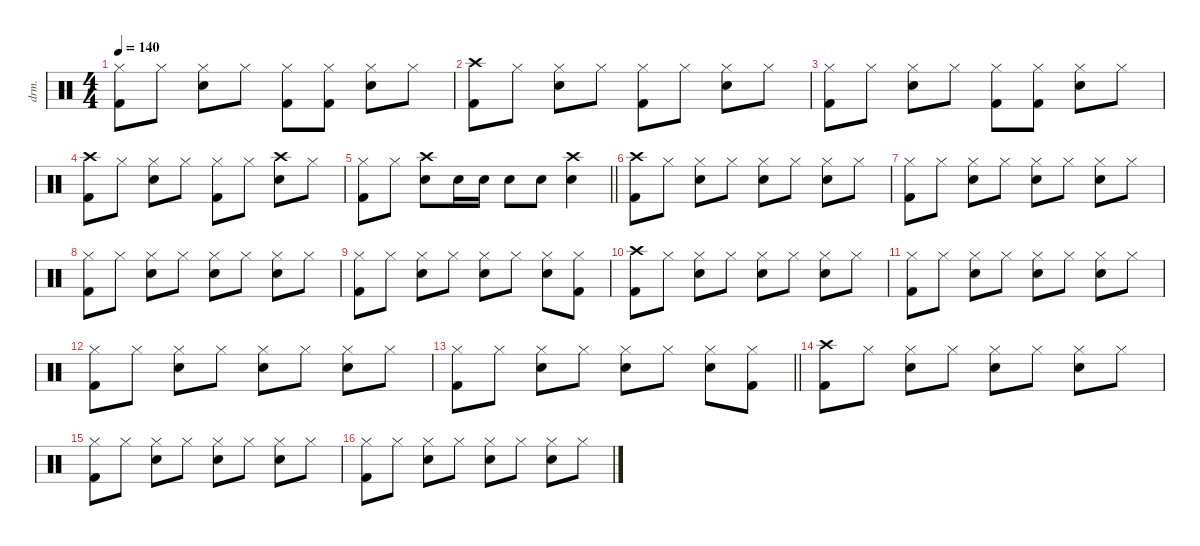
\defaultSystemsLayout 4
\hideDynamics
\bracketExtendMode nobrackets
\otherSystemsTrackNameOrientation horizontal
\track ("Drums" "drm.") {defaultSystemsLayout 4 instrument percussion}
\staff {score}
\articulation defaults
\ts (4 4)
\tempo 140
\clef neutral
\ks c
("Hi-Hat (closed)" "Kick (hit) 2").8{dy f beam Down} "Hi-Hat (closed)".8{beam Down} ("Hi-Hat (closed)" "Snare (hit) 2").8{beam Down} "Hi-Hat (closed)".8{beam Down} ("Hi-Hat (closed)" "Kick (hit) 2").8{beam Down} ("Hi-Hat (closed)" "Kick (hit) 2").8{beam Down} ("Hi-Hat (closed)" "Snare (hit) 2").8{beam Down} "Hi-Hat (closed)".8{beam Down} |
("Crash high (hit)" "Kick (hit) 2").8{beam Down} "Hi-Hat (closed)".8{beam Down} ("Hi-Hat (closed)" "Snare (hit) 2").8{beam Down} "Hi-Hat (closed)".8{beam Down} ("Hi-Hat (closed)" "Kick (hit) 2").8{beam Down} "Hi-Hat (closed)".8{beam Down} ("Hi-Hat (closed)" "Snare (hit) 2").8{beam Down} "Hi-Hat (closed)".8{beam Down} |
("Hi-Hat (closed)" "Kick (hit) 2").8{beam Down} "Hi-Hat (closed)".8{beam Down} ("Hi-Hat (closed)" "Snare (hit) 2").8{beam Down} "Hi-Hat (closed)".8{beam Down} ("Hi-Hat (closed)" "Kick (hit) 2").8{beam Down} ("Hi-Hat (closed)" "Kick (hit) 2").8{beam Down} ("Hi-Hat (closed)" "Snare (hit) 2").8{beam Down} "Hi-Hat (closed)".8{beam Down} |
("Crash high (hit)" "Kick (hit) 2").8{beam Down} "Hi-Hat (closed)".8{beam Down} ("Hi-Hat (closed)" "Snare (hit) 2").8{beam Down} "Hi-Hat (closed)".8{beam Down} ("Hi-Hat (closed)" "Kick (hit) 2").8{beam Down} "Hi-Hat (closed)".8{beam Down} ("Crash high (hit)" "Snare (hit) 2").8{beam Down} "Hi-Hat (closed)".8{beam Down} |
\barLineRight lightlight
("Hi-Hat (closed)" "Kick (hit) 2").8{beam Down} "Hi-Hat (closed)".8{beam Down} ("Crash high (hit)" "Snare (hit) 2").8{beam Down} "Snare (hit) 2".16{beam Down} "Snare (hit) 2".16{beam Down} "Snare (hit) 2".8{beam Down} "Snare (hit) 2".8{beam Down} ("Crash high (hit)" "Snare (hit) 2").4{beam Down} |
("Crash high (hit)" "Kick (hit) 2").8{beam Down} "Hi-Hat (closed)".8{beam Down} ("Hi-Hat (closed)" "Snare (hit) 2").8{beam Down} "Hi-Hat (closed)".8{beam Down} ("Hi-Hat (closed)" "Snare (hit) 2").8{beam Down} "Hi-Hat (closed)".8{beam Down} ("Hi-Hat (closed)" "Snare (hit) 2").8{beam Down} "Hi-Hat (closed)".8{beam Down} |
("Hi-Hat (closed)" "Kick (hit) 2").8{beam Down} "Hi-Hat (closed)".8{beam Down} ("Hi-Hat (closed)" "Snare (hit) 2").8{beam Down} "Hi-Hat (closed)".8{beam Down} ("Hi-Hat (closed)" "Snare (hit) 2").8{beam Down} "Hi-Hat (closed)".8{beam Down} ("Hi-Hat (closed)" "Snare (hit) 2").8{beam Down} "Hi-Hat (closed)".8{beam Down} |
("Hi-Hat (closed)" "Kick (hit) 2").8{beam Down} "Hi-Hat (closed)".8{beam Down} ("Hi-Hat (closed)" "Snare (hit) 2").8{beam Down} "Hi-Hat (closed)".8{beam Down} ("Hi-Hat (closed)" "Snare (hit) 2").8{beam Down} "Hi-Hat (closed)".8{beam Down} ("Hi-Hat (closed)" "Snare (hit) 2").8{beam Down} "Hi-Hat (closed)".8{beam Down} |
("Hi-Hat (closed)" "Kick (hit) 2").8{beam Down} "Hi-Hat (closed)".8{beam Down} ("Hi-Hat (closed)" "Snare (hit) 2").8{beam Down} "Hi-Hat (closed)".8{beam Down} ("Hi-Hat (closed)" "Snare (hit) 2").8{beam Down} "Hi-Hat (closed)".8{beam Down} ("Hi-Hat (closed)" "Snare (hit) 2").8{beam Down} ("Hi-Hat (closed)" "Kick (hit) 2").8{beam Down} |
("Crash high (hit)" "Kick (hit) 2").8{beam Down} "Hi-Hat (closed)".8{beam Down} ("Hi-Hat (closed)" "Snare (hit) 2").8{beam Down} "Hi-Hat (closed)".8{beam Down} ("Hi-Hat (closed)" "Snare (hit) 2").8{beam Down} "Hi-Hat (closed)".8{beam Down} ("Hi-Hat (closed)" "Snare (hit) 2").8{beam Down} "Hi-Hat (closed)".8{beam Down} |
("Hi-Hat (closed)" "Kick (hit) 2").8{beam Down} "Hi-Hat (closed)".8{beam Down} ("Hi-Hat (closed)" "Snare (hit) 2").8{beam Down} "Hi-Hat (closed)".8{beam Down} ("Hi-Hat (closed)" "Snare (hit) 2").8{beam Down} "Hi-Hat (closed)".8{beam Down} ("Hi-Hat (closed)" "Snare (hit) 2").8{beam Down} "Hi-Hat (closed)".8{beam Down} |
("Hi-Hat (closed)" "Kick (hit) 2").8{beam Down} "Hi-Hat (closed)".8{beam Down} ("Hi-Hat (closed)" "Snare (hit) 2").8{beam Down} "Hi-Hat (closed)".8{beam Down} ("Hi-Hat (closed)" "Snare (hit) 2").8{beam Down} "Hi-Hat (closed)".8{beam Down} ("Hi-Hat (closed)" "Snare (hit) 2").8{beam Down} "Hi-Hat (closed)".8{beam Down} |
\barLineRight lightlight
("Hi-Hat (closed)" "Kick (hit) 2").8{beam Down} "Hi-Hat (closed)".8{beam Down} ("Hi-Hat (closed)" "Snare (hit) 2").8{beam Down} "Hi-Hat (closed)".8{beam Down} ("Hi-Hat (closed)" "Snare (hit) 2").8{beam Down} "Hi-Hat (closed)".8{beam Down} ("Hi-Hat (closed)" "Snare (hit) 2").8{beam Down} ("Hi-Hat (closed)" "Kick (hit) 2").8{beam Down} |
("Crash high (hit)" "Kick (hit) 2").8{beam Down} "Hi-Hat (closed)".8{beam Down} ("Hi-Hat (closed)" "Snare (hit) 2").8{beam Down} "Hi-Hat (closed)".8{beam Down} ("Hi-Hat (closed)" "Snare (hit) 2").8{beam Down} "Hi-Hat (closed)".8{beam Down} ("Hi-Hat (closed)" "Snare (hit) 2").8{beam Down} "Hi-Hat (closed)".8{beam Down} |
("Hi-Hat (closed)" "Kick (hit) 2").8{beam Down} "Hi-Hat (closed)".8{beam Down} ("Hi-Hat (closed)" "Snare (hit) 2").8{beam Down} "Hi-Hat (closed)".8{beam Down} ("Hi-Hat (closed)" "Snare (hit) 2").8{beam Down} "Hi-Hat (closed)".8{beam Down} ("Hi-Hat (closed)" "Snare (hit) 2").8{beam Down} "Hi-Hat (closed)".8{beam Down} |
("Hi-Hat (closed)" "Kick (hit) 2").8{beam Down} "Hi-Hat (closed)".8{beam Down} ("Hi-Hat (closed)" "Snare (hit) 2").8{beam Down} "Hi-Hat (closed)".8{beam Down} ("Hi-Hat (closed)" "Snare (hit) 2").8{beam Down} "Hi-Hat (closed)".8{beam Down} ("Hi-Hat (closed)" "Snare (hit) 2").8{beam Down} "Hi-Hat (closed)".8{beam Down}
